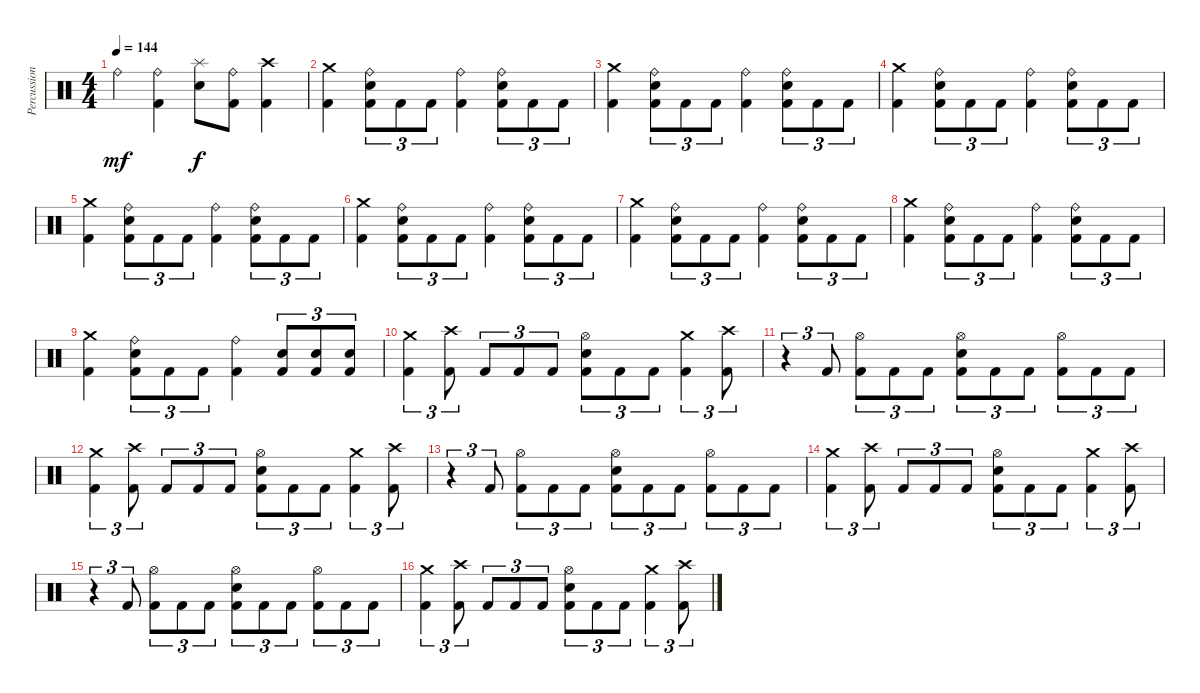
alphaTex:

\track ("Percussions" "Percussion") {instrument percussion}
\staff {score}
\articulation defaults
\ts (4 4)
\tempo 144
\clef neutral
\ks c "Ride (bell)".4{dy mf}
("Ride (bell)" "Kick (hit) 2").4 ("Splash (hit)" "Electric Snare (hit)").8{dy f} ("Ride (bell)" "Kick (hit) 2").8 ("Crash high (hit)" "Kick (hit) 2").4 |
("Crash medium (hit)" "Kick (hit) 2").4 ("Ride (bell)" "Electric Snare (hit)" "Kick (hit) 2").8{tu (3 2)} "Kick (hit) 2".8{tu (3 2)} "Kick (hit) 2".8{tu (3 2)} ("Ride (bell)" "Kick (hit) 2").4 ("Ride (bell)" "Electric Snare (hit)" "Kick (hit) 2").8{tu (3 2)} "Kick (hit) 2".8{tu (3 2)} "Kick (hit) 2".8{tu (3 2)} |
("Crash medium (hit)" "Kick (hit) 2").4 ("Ride (bell)" "Electric Snare (hit)" "Kick (hit) 2").8{tu (3 2)} "Kick (hit) 2".8{tu (3 2)} "Kick (hit) 2".8{tu (3 2)} ("Ride (bell)" "Kick (hit) 2").4 ("Ride (bell)" "Electric Snare (hit)" "Kick (hit) 2").8{tu (3 2)} "Kick (hit) 2".8{tu (3 2)} "Kick (hit) 2".8{tu (3 2)} |
("Crash medium (hit)" "Kick (hit) 2").4 ("Ride (bell)" "Electric Snare (hit)" "Kick (hit) 2").8{tu (3 2)} "Kick (hit) 2".8{tu (3 2)} "Kick (hit) 2".8{tu (3 2)} ("Ride (bell)" "Kick (hit) 2").4 ("Ride (bell)" "Electric Snare (hit)" "Kick (hit) 2").8{tu (3 2)} "Kick (hit) 2".8{tu (3 2)} "Kick (hit) 2".8{tu (3 2)} |
("Crash medium (hit)" "Kick (hit) 2").4 ("Ride (bell)" "Electric Snare (hit)" "Kick (hit) 2").8{tu (3 2)} "Kick (hit) 2".8{tu (3 2)} "Kick (hit) 2".8{tu (3 2)} ("Ride (bell)" "Kick (hit) 2").4 ("Ride (bell)" "Electric Snare (hit)" "Kick (hit) 2").8{tu (3 2)} "Kick (hit) 2".8{tu (3 2)} "Kick (hit) 2".8{tu (3 2)} |
("Crash medium (hit)" "Kick (hit) 2").4 ("Ride (bell)" "Electric Snare (hit)" "Kick (hit) 2").8{tu (3 2)} "Kick (hit) 2".8{tu (3 2)} "Kick (hit) 2".8{tu (3 2)} ("Ride (bell)" "Kick (hit) 2").4 ("Ride (bell)" "Electric Snare (hit)" "Kick (hit) 2").8{tu (3 2)} "Kick (hit) 2".8{tu (3 2)} "Kick (hit) 2".8{tu (3 2)} |
("Crash medium (hit)" "Kick (hit) 2").4 ("Ride (bell)" "Electric Snare (hit)" "Kick (hit) 2").8{tu (3 2)} "Kick (hit) 2".8{tu (3 2)} "Kick (hit) 2".8{tu (3 2)} ("Ride (bell)" "Kick (hit) 2").4 ("Ride (bell)" "Electric Snare (hit)" "Kick (hit) 2").8{tu (3 2)} "Kick (hit) 2".8{tu (3 2)} "Kick (hit) 2".8{tu (3 2)} |
("Crash medium (hit)" "Kick (hit) 2").4 ("Ride (bell)" "Electric Snare (hit)" "Kick (hit) 2").8{tu (3 2)} "Kick (hit) 2".8{tu (3 2)} "Kick (hit) 2".8{tu (3 2)} ("Ride (bell)" "Kick (hit) 2").4 ("Ride (bell)" "Electric Snare (hit)" "Kick (hit) 2").8{tu (3 2)} "Kick (hit) 2".8{tu (3 2)} "Kick (hit) 2".8{tu (3 2)} |
("Crash medium (hit)" "Kick (hit) 2").4 ("Ride (bell)" "Electric Snare (hit)" "Kick (hit) 2").8{tu (3 2)} "Kick (hit) 2".8{tu (3 2)} "Kick (hit) 2".8{tu (3 2)} ("Ride (bell)" "Kick (hit) 2").4 ("Electric Snare (hit)" "Kick (hit) 2").8{tu (3 2)} ("Electric Snare (hit)" "Kick (hit) 2").8{tu (3 2)} ("Electric Snare (hit)" "Kick (hit) 2").8{tu (3 2)} |
("Crash medium (hit)" "Kick (hit) 2").4{tu (3 2)} ("Crash high (hit)" "Kick (hit) 2").8{tu (3 2)} "Kick (hit) 2".8{tu (3 2)} "Kick (hit) 2".8{tu (3 2)} "Kick (hit) 2".8{tu (3 2)} ("Hi-Hat (open)" "Electric Snare (hit)" "Kick (hit) 2").8{tu (3 2)} "Kick (hit) 2".8{tu (3 2)} "Kick (hit) 2".8{tu (3 2)} ("Crash medium (hit)" "Kick (hit) 2").4{tu (3 2)} ("Crash high (hit)" "Kick (hit) 2").8{tu (3 2)} |
r.4{tu (3 2)} "Kick (hit) 2".8{tu (3 2)} ("Hi-Hat (open)" "Kick (hit) 2").8{tu (3 2)} "Kick (hit) 2".8{tu (3 2)} "Kick (hit) 2".8{tu (3 2)} ("Hi-Hat (open)" "Electric Snare (hit)" "Kick (hit) 2").8{tu (3 2)} "Kick (hit) 2".8{tu (3 2)} "Kick (hit) 2".8{tu (3 2)} ("Hi-Hat (open)" "Kick (hit) 2").8{tu (3 2)} "Kick (hit) 2".8{tu (3 2)} "Kick (hit) 2".8{tu (3 2)} |
("Crash medium (hit)" "Kick (hit) 2").4{tu (3 2)} ("Crash high (hit)" "Kick (hit) 2").8{tu (3 2)} "Kick (hit) 2".8{tu (3 2)} "Kick (hit) 2".8{tu (3 2)} "Kick (hit) 2".8{tu (3 2)} ("Hi-Hat (open)" "Electric Snare (hit)" "Kick (hit) 2").8{tu (3 2)} "Kick (hit) 2".8{tu (3 2)} "Kick (hit) 2".8{tu (3 2)} ("Crash medium (hit)" "Kick (hit) 2").4{tu (3 2)} ("Crash high (hit)" "Kick (hit) 2").8{tu (3 2)} |
r.4{tu (3 2)} "Kick (hit) 2".8{tu (3 2)} ("Hi-Hat (open)" "Kick (hit) 2").8{tu (3 2)} "Kick (hit) 2".8{tu (3 2)} "Kick (hit) 2".8{tu (3 2)} ("Hi-Hat (open)" "Electric Snare (hit)" "Kick (hit) 2").8{tu (3 2)} "Kick (hit) 2".8{tu (3 2)} "Kick (hit) 2".8{tu (3 2)} ("Hi-Hat (open)" "Kick (hit) 2").8{tu (3 2)} "Kick (hit) 2".8{tu (3 2)} "Kick (hit) 2".8{tu (3 2)} |
("Crash medium (hit)" "Kick (hit) 2").4{tu (3 2)} ("Crash high (hit)" "Kick (hit) 2").8{tu (3 2)} "Kick (hit) 2".8{tu (3 2)} "Kick (hit) 2".8{tu (3 2)} "Kick (hit) 2".8{tu (3 2)} ("Hi-Hat (open)" "Electric Snare (hit)" "Kick (hit) 2").8{tu (3 2)} "Kick (hit) 2".8{tu (3 2)} "Kick (hit) 2".8{tu (3 2)} ("Crash medium (hit)" "Kick (hit) 2").4{tu (3 2)} ("Crash high (hit)" "Kick (hit) 2").8{tu (3 2)} |
r.4{tu (3 2)} "Kick (hit) 2".8{tu (3 2)} ("Hi-Hat (open)" "Kick (hit) 2").8{tu (3 2)} "Kick (hit) 2".8{tu (3 2)} "Kick (hit) 2".8{tu (3 2)} ("Hi-Hat (open)" "Electric Snare (hit)" "Kick (hit) 2").8{tu (3 2)} "Kick (hit) 2".8{tu (3 2)} "Kick (hit) 2".8{tu (3 2)} ("Hi-Hat (open)" "Kick (hit) 2").8{tu (3 2)} "Kick (hit) 2".8{tu (3 2)} "Kick (hit) 2".8{tu (3 2)} |
("Crash medium (hit)" "Kick (hit) 2").4{tu (3 2)} ("Crash high (hit)" "Kick (hit) 2").8{tu (3 2)} "Kick (hit) 2".8{tu (3 2)} "Kick (hit) 2".8{tu (3 2)} "Kick (hit) 2".8{tu (3 2)} ("Hi-Hat (open)" "Electric Snare (hit)" "Kick (hit) 2").8{tu (3 2)} "Kick (hit) 2".8{tu (3 2)} "Kick (hit) 2".8{tu (3 2)} ("Crash medium (hit)" "Kick (hit) 2").4{tu (3 2)} ("Crash high (hit)" "Kick (hit) 2").8{tu (3 2)}
